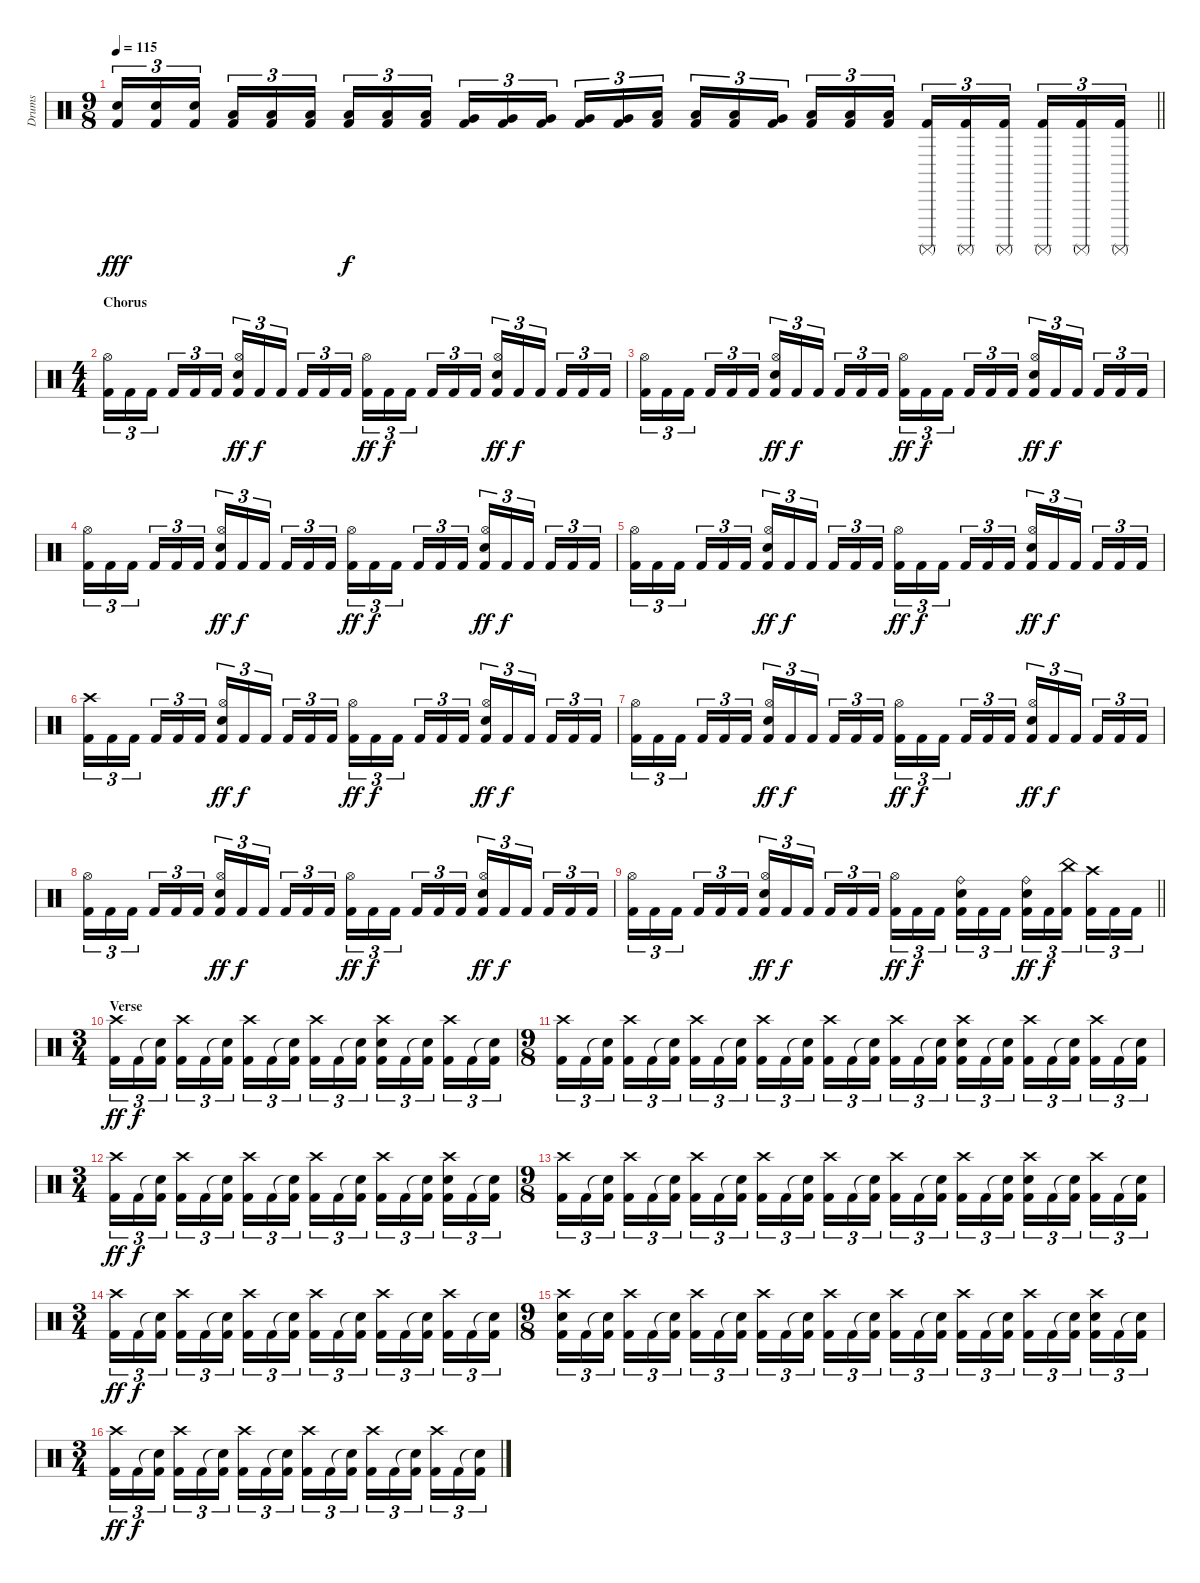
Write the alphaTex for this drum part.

\track ("Drums" "Drums") {instrument percussion}
\staff {score}
\articulation defaults
\ts (9 8)
\tempo 115
\clef neutral
\barLineRight lightlight
\ks c
("Snare (hit) 2" "Kick (hit) 2").16{tu (3 2) dy fff} ("Snare (hit) 2" "Kick (hit) 2").16{tu (3 2)} ("Snare (hit) 2" "Kick (hit) 2").16{tu (3 2) beam splitsecondary} ("Low Tom (hit)" "Kick (hit) 2").16{tu (3 2)} ("Low Tom (hit)" "Kick (hit) 2").16{tu (3 2)} ("Low Tom (hit)" "Kick (hit) 2").16{tu (3 2) beam splitsecondary} ("Low Tom (hit)" "Kick (hit) 2").16{tu (3 2) dy f} ("Low Tom (hit)" "Kick (hit) 2").16{tu (3 2)} ("Low Tom (hit)" "Kick (hit) 2").16{tu (3 2)} ("Very Low Tom (hit)" "Kick (hit) 2").16{tu (3 2)} ("Very Low Tom (hit)" "Kick (hit) 2").16{tu (3 2)} ("Very Low Tom (hit)" "Kick (hit) 2").16{tu (3 2) beam splitsecondary} ("Very Low Tom (hit)" "Kick (hit) 2").16{tu (3 2)} ("Very Low Tom (hit)" "Kick (hit) 2").16{tu (3 2)} ("Low Floor Tom (hit)" "Kick (hit) 2").16{tu (3 2) beam splitsecondary} ("Low Floor Tom (hit)" "Kick (hit) 2").16{tu (3 2)} ("Low Floor Tom (hit)" "Kick (hit) 2").16{tu (3 2)} ("Very Low Tom (hit)" "Kick (hit) 2").16{tu (3 2)} ("Low Floor Tom (hit)" "Kick (hit) 2").16{tu (3 2)} ("Low Floor Tom (hit)" "Kick (hit) 2").16{tu (3 2)} ("Low Floor Tom (hit)" "Kick (hit) 2").16{tu (3 2) beam splitsecondary} ("Surdo (mute)" "Kick (hit) 2").16{tu (3 2)} ("Surdo (mute)" "Kick (hit) 2").16{tu (3 2)} ("Surdo (mute)" "Kick (hit) 2").16{tu (3 2) beam splitsecondary} ("Surdo (mute)" "Kick (hit) 2").16{tu (3 2)} ("Surdo (mute)" "Kick (hit) 2").16{tu (3 2)} ("Surdo (mute)" "Kick (hit) 2").16{tu (3 2)} |
\ts (4 4)
\section ("" "Chorus")
("Hi-Hat (open)" "Kick (hit) 2").16{tu (3 2)} "Kick (hit) 2".16{tu (3 2)} "Kick (hit) 2".16{tu (3 2) beam splitsecondary} "Kick (hit) 2".16{tu (3 2)} "Kick (hit) 2".16{tu (3 2)} "Kick (hit) 2".16{tu (3 2)} ("Hi-Hat (open)" "Electric Snare (hit)" "Kick (hit) 2").16{tu (3 2) dy ff} "Kick (hit) 2".16{tu (3 2) dy f} "Kick (hit) 2".16{tu (3 2) beam splitsecondary} "Kick (hit) 2".16{tu (3 2)} "Kick (hit) 2".16{tu (3 2)} "Kick (hit) 2".16{tu (3 2)} ("Hi-Hat (open)" "Kick (hit) 2").16{tu (3 2) dy ff} "Kick (hit) 2".16{tu (3 2) dy f} "Kick (hit) 2".16{tu (3 2) beam splitsecondary} "Kick (hit) 2".16{tu (3 2)} "Kick (hit) 2".16{tu (3 2)} "Kick (hit) 2".16{tu (3 2)} ("Hi-Hat (open)" "Electric Snare (hit)" "Kick (hit) 2").16{tu (3 2) dy ff} "Kick (hit) 2".16{tu (3 2) dy f} "Kick (hit) 2".16{tu (3 2) beam splitsecondary} "Kick (hit) 2".16{tu (3 2)} "Kick (hit) 2".16{tu (3 2)} "Kick (hit) 2".16{tu (3 2)} |
("Hi-Hat (open)" "Kick (hit) 2").16{tu (3 2)} "Kick (hit) 2".16{tu (3 2)} "Kick (hit) 2".16{tu (3 2) beam splitsecondary} "Kick (hit) 2".16{tu (3 2)} "Kick (hit) 2".16{tu (3 2)} "Kick (hit) 2".16{tu (3 2)} ("Hi-Hat (open)" "Electric Snare (hit)" "Kick (hit) 2").16{tu (3 2) dy ff} "Kick (hit) 2".16{tu (3 2) dy f} "Kick (hit) 2".16{tu (3 2) beam splitsecondary} "Kick (hit) 2".16{tu (3 2)} "Kick (hit) 2".16{tu (3 2)} "Kick (hit) 2".16{tu (3 2)} ("Hi-Hat (open)" "Kick (hit) 2").16{tu (3 2) dy ff} "Kick (hit) 2".16{tu (3 2) dy f} "Kick (hit) 2".16{tu (3 2) beam splitsecondary} "Kick (hit) 2".16{tu (3 2)} "Kick (hit) 2".16{tu (3 2)} "Kick (hit) 2".16{tu (3 2)} ("Hi-Hat (open)" "Electric Snare (hit)" "Kick (hit) 2").16{tu (3 2) dy ff} "Kick (hit) 2".16{tu (3 2) dy f} "Kick (hit) 2".16{tu (3 2) beam splitsecondary} "Kick (hit) 2".16{tu (3 2)} "Kick (hit) 2".16{tu (3 2)} "Kick (hit) 2".16{tu (3 2)} |
("Hi-Hat (open)" "Kick (hit) 2").16{tu (3 2)} "Kick (hit) 2".16{tu (3 2)} "Kick (hit) 2".16{tu (3 2) beam splitsecondary} "Kick (hit) 2".16{tu (3 2)} "Kick (hit) 2".16{tu (3 2)} "Kick (hit) 2".16{tu (3 2)} ("Hi-Hat (open)" "Electric Snare (hit)" "Kick (hit) 2").16{tu (3 2) dy ff} "Kick (hit) 2".16{tu (3 2) dy f} "Kick (hit) 2".16{tu (3 2) beam splitsecondary} "Kick (hit) 2".16{tu (3 2)} "Kick (hit) 2".16{tu (3 2)} "Kick (hit) 2".16{tu (3 2)} ("Hi-Hat (open)" "Kick (hit) 2").16{tu (3 2) dy ff} "Kick (hit) 2".16{tu (3 2) dy f} "Kick (hit) 2".16{tu (3 2) beam splitsecondary} "Kick (hit) 2".16{tu (3 2)} "Kick (hit) 2".16{tu (3 2)} "Kick (hit) 2".16{tu (3 2)} ("Hi-Hat (open)" "Electric Snare (hit)" "Kick (hit) 2").16{tu (3 2) dy ff} "Kick (hit) 2".16{tu (3 2) dy f} "Kick (hit) 2".16{tu (3 2) beam splitsecondary} "Kick (hit) 2".16{tu (3 2)} "Kick (hit) 2".16{tu (3 2)} "Kick (hit) 2".16{tu (3 2)} |
("Hi-Hat (open)" "Kick (hit) 2").16{tu (3 2)} "Kick (hit) 2".16{tu (3 2)} "Kick (hit) 2".16{tu (3 2) beam splitsecondary} "Kick (hit) 2".16{tu (3 2)} "Kick (hit) 2".16{tu (3 2)} "Kick (hit) 2".16{tu (3 2)} ("Hi-Hat (open)" "Electric Snare (hit)" "Kick (hit) 2").16{tu (3 2) dy ff} "Kick (hit) 2".16{tu (3 2) dy f} "Kick (hit) 2".16{tu (3 2) beam splitsecondary} "Kick (hit) 2".16{tu (3 2)} "Kick (hit) 2".16{tu (3 2)} "Kick (hit) 2".16{tu (3 2)} ("Hi-Hat (open)" "Kick (hit) 2").16{tu (3 2) dy ff} "Kick (hit) 2".16{tu (3 2) dy f} "Kick (hit) 2".16{tu (3 2) beam splitsecondary} "Kick (hit) 2".16{tu (3 2)} "Kick (hit) 2".16{tu (3 2)} "Kick (hit) 2".16{tu (3 2)} ("Hi-Hat (open)" "Electric Snare (hit)" "Kick (hit) 2").16{tu (3 2) dy ff} "Kick (hit) 2".16{tu (3 2) dy f} "Kick (hit) 2".16{tu (3 2) beam splitsecondary} "Kick (hit) 2".16{tu (3 2)} "Kick (hit) 2".16{tu (3 2)} "Kick (hit) 2".16{tu (3 2)} |
("Crash high (hit)" "Kick (hit) 2").16{tu (3 2)} "Kick (hit) 2".16{tu (3 2)} "Kick (hit) 2".16{tu (3 2) beam splitsecondary} "Kick (hit) 2".16{tu (3 2)} "Kick (hit) 2".16{tu (3 2)} "Kick (hit) 2".16{tu (3 2)} ("Hi-Hat (open)" "Electric Snare (hit)" "Kick (hit) 2").16{tu (3 2) dy ff} "Kick (hit) 2".16{tu (3 2) dy f} "Kick (hit) 2".16{tu (3 2) beam splitsecondary} "Kick (hit) 2".16{tu (3 2)} "Kick (hit) 2".16{tu (3 2)} "Kick (hit) 2".16{tu (3 2)} ("Hi-Hat (open)" "Kick (hit) 2").16{tu (3 2) dy ff} "Kick (hit) 2".16{tu (3 2) dy f} "Kick (hit) 2".16{tu (3 2) beam splitsecondary} "Kick (hit) 2".16{tu (3 2)} "Kick (hit) 2".16{tu (3 2)} "Kick (hit) 2".16{tu (3 2)} ("Hi-Hat (open)" "Electric Snare (hit)" "Kick (hit) 2").16{tu (3 2) dy ff} "Kick (hit) 2".16{tu (3 2) dy f} "Kick (hit) 2".16{tu (3 2) beam splitsecondary} "Kick (hit) 2".16{tu (3 2)} "Kick (hit) 2".16{tu (3 2)} "Kick (hit) 2".16{tu (3 2)} |
("Hi-Hat (open)" "Kick (hit) 2").16{tu (3 2)} "Kick (hit) 2".16{tu (3 2)} "Kick (hit) 2".16{tu (3 2) beam splitsecondary} "Kick (hit) 2".16{tu (3 2)} "Kick (hit) 2".16{tu (3 2)} "Kick (hit) 2".16{tu (3 2)} ("Hi-Hat (open)" "Electric Snare (hit)" "Kick (hit) 2").16{tu (3 2) dy ff} "Kick (hit) 2".16{tu (3 2) dy f} "Kick (hit) 2".16{tu (3 2) beam splitsecondary} "Kick (hit) 2".16{tu (3 2)} "Kick (hit) 2".16{tu (3 2)} "Kick (hit) 2".16{tu (3 2)} ("Hi-Hat (open)" "Kick (hit) 2").16{tu (3 2) dy ff} "Kick (hit) 2".16{tu (3 2) dy f} "Kick (hit) 2".16{tu (3 2) beam splitsecondary} "Kick (hit) 2".16{tu (3 2)} "Kick (hit) 2".16{tu (3 2)} "Kick (hit) 2".16{tu (3 2)} ("Hi-Hat (open)" "Electric Snare (hit)" "Kick (hit) 2").16{tu (3 2) dy ff} "Kick (hit) 2".16{tu (3 2) dy f} "Kick (hit) 2".16{tu (3 2) beam splitsecondary} "Kick (hit) 2".16{tu (3 2)} "Kick (hit) 2".16{tu (3 2)} "Kick (hit) 2".16{tu (3 2)} |
("Hi-Hat (open)" "Kick (hit) 2").16{tu (3 2)} "Kick (hit) 2".16{tu (3 2)} "Kick (hit) 2".16{tu (3 2) beam splitsecondary} "Kick (hit) 2".16{tu (3 2)} "Kick (hit) 2".16{tu (3 2)} "Kick (hit) 2".16{tu (3 2)} ("Hi-Hat (open)" "Electric Snare (hit)" "Kick (hit) 2").16{tu (3 2) dy ff} "Kick (hit) 2".16{tu (3 2) dy f} "Kick (hit) 2".16{tu (3 2) beam splitsecondary} "Kick (hit) 2".16{tu (3 2)} "Kick (hit) 2".16{tu (3 2)} "Kick (hit) 2".16{tu (3 2)} ("Hi-Hat (open)" "Kick (hit) 2").16{tu (3 2) dy ff} "Kick (hit) 2".16{tu (3 2) dy f} "Kick (hit) 2".16{tu (3 2) beam splitsecondary} "Kick (hit) 2".16{tu (3 2)} "Kick (hit) 2".16{tu (3 2)} "Kick (hit) 2".16{tu (3 2)} ("Hi-Hat (open)" "Electric Snare (hit)" "Kick (hit) 2").16{tu (3 2) dy ff} "Kick (hit) 2".16{tu (3 2) dy f} "Kick (hit) 2".16{tu (3 2) beam splitsecondary} "Kick (hit) 2".16{tu (3 2)} "Kick (hit) 2".16{tu (3 2)} "Kick (hit) 2".16{tu (3 2)} |
\barLineRight lightlight
("Hi-Hat (open)" "Kick (hit) 2").16{tu (3 2)} "Kick (hit) 2".16{tu (3 2)} "Kick (hit) 2".16{tu (3 2) beam splitsecondary} "Kick (hit) 2".16{tu (3 2)} "Kick (hit) 2".16{tu (3 2)} "Kick (hit) 2".16{tu (3 2)} ("Hi-Hat (open)" "Electric Snare (hit)" "Kick (hit) 2").16{tu (3 2) dy ff} "Kick (hit) 2".16{tu (3 2) dy f} "Kick (hit) 2".16{tu (3 2) beam splitsecondary} "Kick (hit) 2".16{tu (3 2)} "Kick (hit) 2".16{tu (3 2)} "Kick (hit) 2".16{tu (3 2)} ("Hi-Hat (open)" "Kick (hit) 2").16{tu (3 2) dy ff} "Kick (hit) 2".16{tu (3 2) dy f} "Kick (hit) 2".16{tu (3 2) beam splitsecondary} ("Ride (bell)" "Electric Snare (hit)" "Kick (hit) 2").16{tu (3 2)} "Kick (hit) 2".16{tu (3 2)} "Kick (hit) 2".16{tu (3 2)} ("Ride (bell)" "Electric Snare (hit)" "Kick (hit) 2").16{tu (3 2) dy ff} "Kick (hit) 2".16{tu (3 2) dy f} ("China (hit)" "Kick (hit) 2").16{tu (3 2) beam splitsecondary} ("Crash high (hit)" "Kick (hit) 2").16{tu (3 2)} "Kick (hit) 2".16{tu (3 2)} "Kick (hit) 2".16{tu (3 2)} |
\ts (3 4)
\section ("" "Verse")
("Crash high (hit)" "Kick (hit) 2").16{tu (3 2) dy ff} "Kick (hit) 2".16{tu (3 2) dy f} ("Snare (hit)"{t} "Kick (hit) 2").16{tu (3 2) beam splitsecondary} ("Crash high (hit)" "Kick (hit) 2").16{tu (3 2)} "Kick (hit) 2".16{tu (3 2)} ("Snare (hit)"{t} "Kick (hit) 2").16{tu (3 2)} ("Crash high (hit)" "Kick (hit) 2").16{tu (3 2)} "Kick (hit) 2".16{tu (3 2)} ("Snare (hit)"{t} "Kick (hit) 2").16{tu (3 2) beam splitsecondary} ("Crash high (hit)" "Kick (hit) 2").16{tu (3 2)} "Kick (hit) 2".16{tu (3 2)} ("Snare (hit)"{t} "Kick (hit) 2").16{tu (3 2)} ("Crash high (hit)" "Electric Snare (hit)" "Kick (hit) 2").16{tu (3 2)} "Kick (hit) 2".16{tu (3 2)} ("Snare (hit)"{t} "Kick (hit) 2").16{tu (3 2) beam splitsecondary} ("Crash high (hit)" "Kick (hit) 2").16{tu (3 2)} "Kick (hit) 2".16{tu (3 2)} ("Snare (hit)"{t} "Kick (hit) 2").16{tu (3 2)} |
\ts (9 8)
("Crash high (hit)" "Kick (hit) 2").16{tu (3 2)} "Kick (hit) 2".16{tu (3 2)} ("Snare (hit)"{t} "Kick (hit) 2").16{tu (3 2) beam splitsecondary} ("Crash high (hit)" "Kick (hit) 2").16{tu (3 2)} "Kick (hit) 2".16{tu (3 2)} ("Snare (hit)"{t} "Kick (hit) 2").16{tu (3 2) beam splitsecondary} ("Crash high (hit)" "Kick (hit) 2").16{tu (3 2)} "Kick (hit) 2".16{tu (3 2)} ("Snare (hit)"{t} "Kick (hit) 2").16{tu (3 2)} ("Crash high (hit)" "Kick (hit) 2").16{tu (3 2)} "Kick (hit) 2".16{tu (3 2)} ("Snare (hit)"{t} "Kick (hit) 2").16{tu (3 2) beam splitsecondary} ("Crash high (hit)" "Kick (hit) 2").16{tu (3 2)} "Kick (hit) 2".16{tu (3 2)} ("Snare (hit)"{t} "Kick (hit) 2").16{tu (3 2) beam splitsecondary} ("Crash high (hit)" "Kick (hit) 2").16{tu (3 2)} "Kick (hit) 2".16{tu (3 2)} ("Snare (hit)"{t} "Kick (hit) 2").16{tu (3 2)} ("Crash high (hit)" "Electric Snare (hit)" "Kick (hit) 2").16{tu (3 2)} "Kick (hit) 2".16{tu (3 2)} ("Snare (hit)"{t} "Kick (hit) 2").16{tu (3 2) beam splitsecondary} ("Crash high (hit)" "Kick (hit) 2").16{tu (3 2)} "Kick (hit) 2".16{tu (3 2)} ("Snare (hit)"{t} "Kick (hit) 2").16{tu (3 2) beam splitsecondary} ("Crash high (hit)" "Kick (hit) 2").16{tu (3 2)} "Kick (hit) 2".16{tu (3 2)} ("Snare (hit)"{t} "Kick (hit) 2").16{tu (3 2)} |
\ts (3 4)
("Crash high (hit)" "Kick (hit) 2").16{tu (3 2) dy ff} "Kick (hit) 2".16{tu (3 2) dy f} ("Snare (hit)"{t} "Kick (hit) 2").16{tu (3 2) beam splitsecondary} ("Crash high (hit)" "Kick (hit) 2").16{tu (3 2)} "Kick (hit) 2".16{tu (3 2)} ("Snare (hit)"{t} "Kick (hit) 2").16{tu (3 2)} ("Crash high (hit)" "Kick (hit) 2").16{tu (3 2)} "Kick (hit) 2".16{tu (3 2)} ("Snare (hit)"{t} "Kick (hit) 2").16{tu (3 2) beam splitsecondary} ("Crash high (hit)" "Kick (hit) 2").16{tu (3 2)} "Kick (hit) 2".16{tu (3 2)} ("Snare (hit)"{t} "Kick (hit) 2").16{tu (3 2)} ("Crash high (hit)" "Kick (hit) 2").16{tu (3 2)} "Kick (hit) 2".16{tu (3 2)} ("Snare (hit)"{t} "Kick (hit) 2").16{tu (3 2) beam splitsecondary} ("Crash high (hit)" "Electric Snare (hit)" "Kick (hit) 2").16{tu (3 2)} "Kick (hit) 2".16{tu (3 2)} ("Snare (hit)"{t} "Kick (hit) 2").16{tu (3 2)} |
\ts (9 8)
("Crash high (hit)" "Kick (hit) 2").16{tu (3 2)} "Kick (hit) 2".16{tu (3 2)} ("Snare (hit)"{t} "Kick (hit) 2").16{tu (3 2) beam splitsecondary} ("Crash high (hit)" "Kick (hit) 2").16{tu (3 2)} "Kick (hit) 2".16{tu (3 2)} ("Snare (hit)"{t} "Kick (hit) 2").16{tu (3 2) beam splitsecondary} ("Crash high (hit)" "Kick (hit) 2").16{tu (3 2)} "Kick (hit) 2".16{tu (3 2)} ("Snare (hit)"{t} "Kick (hit) 2").16{tu (3 2)} ("Crash high (hit)" "Kick (hit) 2").16{tu (3 2)} "Kick (hit) 2".16{tu (3 2)} ("Snare (hit)"{t} "Kick (hit) 2").16{tu (3 2) beam splitsecondary} ("Crash high (hit)" "Kick (hit) 2").16{tu (3 2)} "Kick (hit) 2".16{tu (3 2)} ("Snare (hit)"{t} "Kick (hit) 2").16{tu (3 2) beam splitsecondary} ("Crash high (hit)" "Kick (hit) 2").16{tu (3 2)} "Kick (hit) 2".16{tu (3 2)} ("Snare (hit)"{t} "Kick (hit) 2").16{tu (3 2)} ("Crash high (hit)" "Kick (hit) 2").16{tu (3 2)} "Kick (hit) 2".16{tu (3 2)} ("Snare (hit)"{t} "Kick (hit) 2").16{tu (3 2) beam splitsecondary} ("Crash high (hit)" "Electric Snare (hit)" "Kick (hit) 2").16{tu (3 2)} "Kick (hit) 2".16{tu (3 2)} ("Snare (hit)"{t} "Kick (hit) 2").16{tu (3 2) beam splitsecondary} ("Crash high (hit)" "Kick (hit) 2").16{tu (3 2)} "Kick (hit) 2".16{tu (3 2)} ("Snare (hit)"{t} "Kick (hit) 2").16{tu (3 2)} |
\ts (3 4)
("Crash high (hit)" "Kick (hit) 2").16{tu (3 2) dy ff} "Kick (hit) 2".16{tu (3 2) dy f} ("Snare (hit)"{t} "Kick (hit) 2").16{tu (3 2) beam splitsecondary} ("Crash high (hit)" "Kick (hit) 2").16{tu (3 2)} "Kick (hit) 2".16{tu (3 2)} ("Snare (hit)"{t} "Kick (hit) 2").16{tu (3 2)} ("Crash high (hit)" "Kick (hit) 2").16{tu (3 2)} "Kick (hit) 2".16{tu (3 2)} ("Snare (hit)"{t} "Kick (hit) 2").16{tu (3 2) beam splitsecondary} ("Crash high (hit)" "Kick (hit) 2").16{tu (3 2)} "Kick (hit) 2".16{tu (3 2)} ("Snare (hit)"{t} "Kick (hit) 2").16{tu (3 2)} ("Crash high (hit)" "Kick (hit) 2").16{tu (3 2)} "Kick (hit) 2".16{tu (3 2)} ("Snare (hit)"{t} "Kick (hit) 2").16{tu (3 2) beam splitsecondary} ("Crash high (hit)" "Kick (hit) 2").16{tu (3 2)} "Kick (hit) 2".16{tu (3 2)} ("Snare (hit)"{t} "Kick (hit) 2").16{tu (3 2)} |
\ts (9 8)
("Crash high (hit)" "Electric Snare (hit)" "Kick (hit) 2").16{tu (3 2)} "Kick (hit) 2".16{tu (3 2)} ("Snare (hit)"{t} "Kick (hit) 2").16{tu (3 2) beam splitsecondary} ("Crash high (hit)" "Kick (hit) 2").16{tu (3 2)} "Kick (hit) 2".16{tu (3 2)} ("Snare (hit)"{t} "Kick (hit) 2").16{tu (3 2) beam splitsecondary} ("Crash high (hit)" "Kick (hit) 2").16{tu (3 2)} "Kick (hit) 2".16{tu (3 2)} ("Snare (hit)"{t} "Kick (hit) 2").16{tu (3 2)} ("Crash high (hit)" "Kick (hit) 2").16{tu (3 2)} "Kick (hit) 2".16{tu (3 2)} ("Snare (hit)"{t} "Kick (hit) 2").16{tu (3 2) beam splitsecondary} ("Crash high (hit)" "Kick (hit) 2").16{tu (3 2)} "Kick (hit) 2".16{tu (3 2)} ("Snare (hit)"{t} "Kick (hit) 2").16{tu (3 2) beam splitsecondary} ("Crash high (hit)" "Kick (hit) 2").16{tu (3 2)} "Kick (hit) 2".16{tu (3 2)} ("Snare (hit)"{t} "Kick (hit) 2").16{tu (3 2)} ("Crash high (hit)" "Kick (hit) 2").16{tu (3 2)} "Kick (hit) 2".16{tu (3 2)} ("Snare (hit)"{t} "Kick (hit) 2").16{tu (3 2) beam splitsecondary} ("Crash high (hit)" "Kick (hit) 2").16{tu (3 2)} "Kick (hit) 2".16{tu (3 2)} ("Snare (hit)"{t} "Kick (hit) 2").16{tu (3 2) beam splitsecondary} ("Crash high (hit)" "Electric Snare (hit)" "Kick (hit) 2").16{tu (3 2)} "Kick (hit) 2".16{tu (3 2)} ("Snare (hit)"{t} "Kick (hit) 2").16{tu (3 2)} |
\ts (3 4)
("Crash high (hit)" "Kick (hit) 2").16{tu (3 2) dy ff} "Kick (hit) 2".16{tu (3 2) dy f} ("Snare (hit)"{t} "Kick (hit) 2").16{tu (3 2) beam splitsecondary} ("Crash high (hit)" "Kick (hit) 2").16{tu (3 2)} "Kick (hit) 2".16{tu (3 2)} ("Snare (hit)"{t} "Kick (hit) 2").16{tu (3 2)} ("Crash high (hit)" "Kick (hit) 2").16{tu (3 2)} "Kick (hit) 2".16{tu (3 2)} ("Snare (hit)"{t} "Kick (hit) 2").16{tu (3 2) beam splitsecondary} ("Crash high (hit)" "Kick (hit) 2").16{tu (3 2)} "Kick (hit) 2".16{tu (3 2)} ("Snare (hit)"{t} "Kick (hit) 2").16{tu (3 2)} ("Crash high (hit)" "Kick (hit) 2").16{tu (3 2)} "Kick (hit) 2".16{tu (3 2)} ("Snare (hit)"{t} "Kick (hit) 2").16{tu (3 2) beam splitsecondary} ("Crash high (hit)" "Kick (hit) 2").16{tu (3 2)} "Kick (hit) 2".16{tu (3 2)} ("Snare (hit)"{t} "Kick (hit) 2").16{tu (3 2)}
